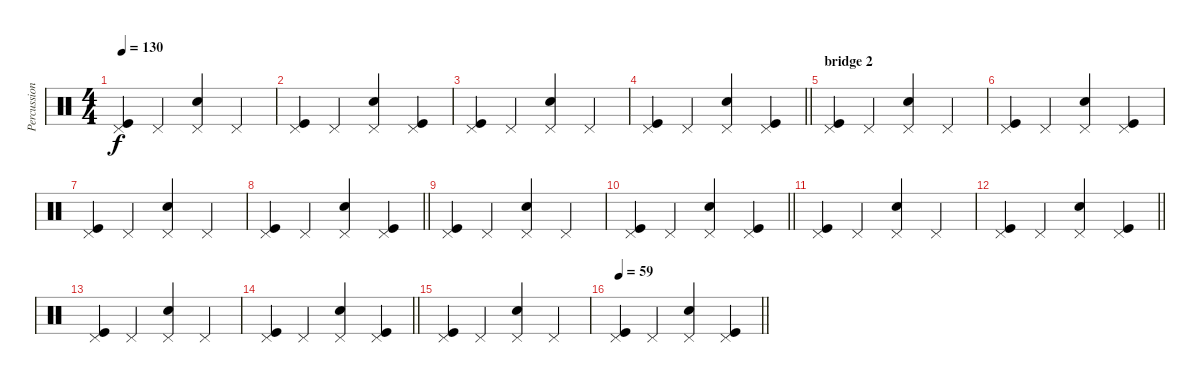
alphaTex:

\track ("Percussion" "Percussion") {instrument percussion}
\staff {score}
\articulation defaults
\ts (4 4)
\tempo 130
\clef neutral
\ks c
("Pedal Hi-Hat (hit)" "Kick (hit)").4{dy f} "Pedal Hi-Hat (hit)".4 ("Pedal Hi-Hat (hit)" "Electric Snare (hit)").4 "Pedal Hi-Hat (hit)".4 |
("Pedal Hi-Hat (hit)" "Kick (hit)").4 "Pedal Hi-Hat (hit)".4 ("Pedal Hi-Hat (hit)" "Electric Snare (hit)").4 ("Pedal Hi-Hat (hit)" "Kick (hit)").4 |
("Pedal Hi-Hat (hit)" "Kick (hit)").4 "Pedal Hi-Hat (hit)".4 ("Pedal Hi-Hat (hit)" "Electric Snare (hit)").4 "Pedal Hi-Hat (hit)".4 |
\barLineRight lightlight
("Pedal Hi-Hat (hit)" "Kick (hit)").4 "Pedal Hi-Hat (hit)".4 ("Pedal Hi-Hat (hit)" "Electric Snare (hit)").4 ("Pedal Hi-Hat (hit)" "Kick (hit)").4 |
\section ("" "bridge 2")
("Pedal Hi-Hat (hit)" "Kick (hit)").4 "Pedal Hi-Hat (hit)".4 ("Pedal Hi-Hat (hit)" "Electric Snare (hit)").4 "Pedal Hi-Hat (hit)".4 |
("Pedal Hi-Hat (hit)" "Kick (hit)").4 "Pedal Hi-Hat (hit)".4 ("Pedal Hi-Hat (hit)" "Electric Snare (hit)").4 ("Pedal Hi-Hat (hit)" "Kick (hit)").4 |
("Pedal Hi-Hat (hit)" "Kick (hit)").4 "Pedal Hi-Hat (hit)".4 ("Pedal Hi-Hat (hit)" "Electric Snare (hit)").4 "Pedal Hi-Hat (hit)".4 |
\barLineRight lightlight
("Pedal Hi-Hat (hit)" "Kick (hit)").4 "Pedal Hi-Hat (hit)".4 ("Pedal Hi-Hat (hit)" "Electric Snare (hit)").4 ("Pedal Hi-Hat (hit)" "Kick (hit)").4 |
("Pedal Hi-Hat (hit)" "Kick (hit)").4 "Pedal Hi-Hat (hit)".4 ("Pedal Hi-Hat (hit)" "Electric Snare (hit)").4 "Pedal Hi-Hat (hit)".4 |
\barLineRight lightlight
("Pedal Hi-Hat (hit)" "Kick (hit)").4 "Pedal Hi-Hat (hit)".4 ("Pedal Hi-Hat (hit)" "Electric Snare (hit)").4 ("Pedal Hi-Hat (hit)" "Kick (hit)").4 |
("Pedal Hi-Hat (hit)" "Kick (hit)").4 "Pedal Hi-Hat (hit)".4 ("Pedal Hi-Hat (hit)" "Electric Snare (hit)").4 "Pedal Hi-Hat (hit)".4 |
\barLineRight lightlight
("Pedal Hi-Hat (hit)" "Kick (hit)").4 "Pedal Hi-Hat (hit)".4 ("Pedal Hi-Hat (hit)" "Electric Snare (hit)").4 ("Pedal Hi-Hat (hit)" "Kick (hit)").4 |
("Pedal Hi-Hat (hit)" "Kick (hit)").4 "Pedal Hi-Hat (hit)".4 ("Pedal Hi-Hat (hit)" "Electric Snare (hit)").4 "Pedal Hi-Hat (hit)".4 |
\barLineRight lightlight
("Pedal Hi-Hat (hit)" "Kick (hit)").4 "Pedal Hi-Hat (hit)".4 ("Pedal Hi-Hat (hit)" "Electric Snare (hit)").4 ("Pedal Hi-Hat (hit)" "Kick (hit)").4 |
("Pedal Hi-Hat (hit)" "Kick (hit)").4 "Pedal Hi-Hat (hit)".4 ("Pedal Hi-Hat (hit)" "Electric Snare (hit)").4 "Pedal Hi-Hat (hit)".4 |
\tempo 59
\barLineRight lightlight
("Pedal Hi-Hat (hit)" "Kick (hit)").4 "Pedal Hi-Hat (hit)".4 ("Pedal Hi-Hat (hit)" "Electric Snare (hit)").4 ("Pedal Hi-Hat (hit)" "Kick (hit)").4
